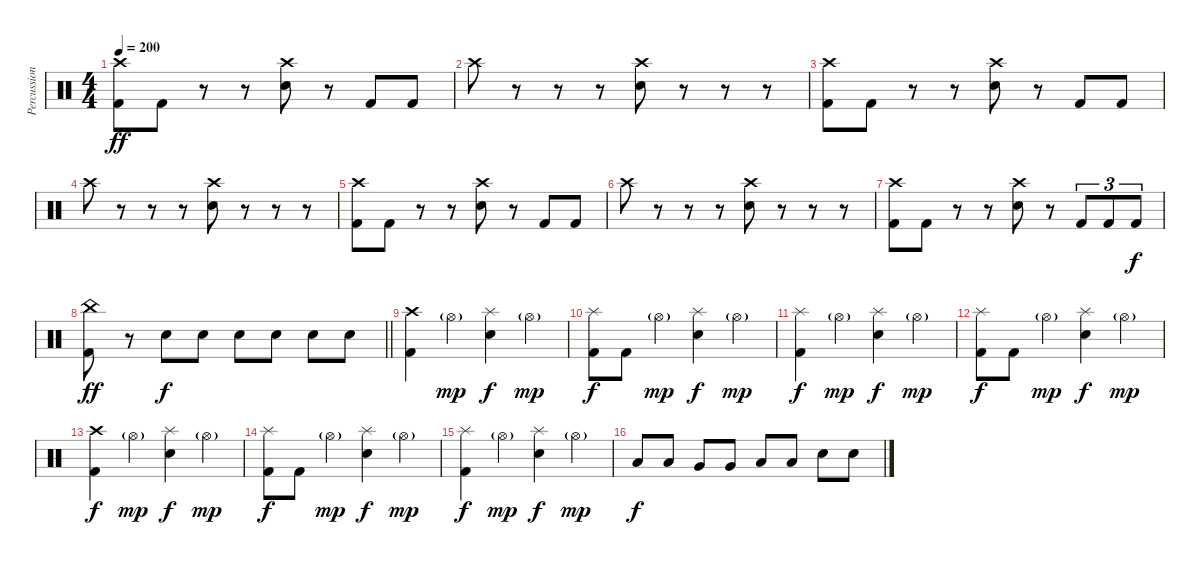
\track ("Percussion" "Percussion") {instrument percussion}
\staff {score}
\articulation defaults
\ts (4 4)
\tempo 200
\clef neutral
\ks c
("Crash high (hit)" "Kick (hit) 2").8{dy ff} "Kick (hit) 2".8 r.8 r.8 ("Crash high (hit)" "Electric Snare (hit)").8 r.8 "Kick (hit) 2".8 "Kick (hit) 2".8 |
"Crash high (hit)".8 r.8 r.8 r.8 ("Crash high (hit)" "Electric Snare (hit)").8 r.8 r.8 r.8 |
("Crash high (hit)" "Kick (hit) 2").8 "Kick (hit) 2".8 r.8 r.8 ("Crash high (hit)" "Electric Snare (hit)").8 r.8 "Kick (hit) 2".8 "Kick (hit) 2".8 |
"Crash high (hit)".8 r.8 r.8 r.8 ("Crash high (hit)" "Electric Snare (hit)").8 r.8 r.8 r.8 |
("Crash high (hit)" "Kick (hit) 2").8 "Kick (hit) 2".8 r.8 r.8 ("Crash high (hit)" "Electric Snare (hit)").8 r.8 "Kick (hit) 2".8 "Kick (hit) 2".8 |
"Crash high (hit)".8 r.8 r.8 r.8 ("Crash high (hit)" "Electric Snare (hit)").8 r.8 r.8 r.8 |
("Crash high (hit)" "Kick (hit) 2").8 "Kick (hit) 2".8 r.8 r.8 ("Crash high (hit)" "Electric Snare (hit)").8 r.8 "Kick (hit) 2".8{tu (3 2)} "Kick (hit) 2".8{tu (3 2)} "Kick (hit) 2".8{tu (3 2) dy f} |
\barLineRight lightlight
("China (hit)" "Kick (hit) 2").8{dy ff} r.8 "Electric Snare (hit)".8{dy f} "Electric Snare (hit)".8 "Electric Snare (hit)".8 "Electric Snare (hit)".8 "Electric Snare (hit)".8 "Electric Snare (hit)".8 |
\section ("" "")
("Crash high (hit)" "Kick (hit) 2").4 "Hi-Hat (open)"{g}.4{dy mp} ("Splash (hit)" "Electric Snare (hit)").4{dy f} "Hi-Hat (open)"{g}.4{dy mp} |
("Splash (hit)" "Kick (hit) 2").8{dy f} "Kick (hit) 2".8 "Hi-Hat (open)"{g}.4{dy mp} ("Splash (hit)" "Electric Snare (hit)").4{dy f} "Hi-Hat (open)"{g}.4{dy mp} |
("Splash (hit)" "Kick (hit) 2").4{dy f} "Hi-Hat (open)"{g}.4{dy mp} ("Splash (hit)" "Electric Snare (hit)").4{dy f} "Hi-Hat (open)"{g}.4{dy mp} |
("Splash (hit)" "Kick (hit) 2").8{dy f} "Kick (hit) 2".8 "Hi-Hat (open)"{g}.4{dy mp} ("Splash (hit)" "Electric Snare (hit)").4{dy f} "Hi-Hat (open)"{g}.4{dy mp} |
("Crash high (hit)" "Kick (hit) 2").4{dy f} "Hi-Hat (open)"{g}.4{dy mp} ("Splash (hit)" "Electric Snare (hit)").4{dy f} "Hi-Hat (open)"{g}.4{dy mp} |
("Splash (hit)" "Kick (hit) 2").8{dy f} "Kick (hit) 2".8 "Hi-Hat (open)"{g}.4{dy mp} ("Splash (hit)" "Electric Snare (hit)").4{dy f} "Hi-Hat (open)"{g}.4{dy mp} |
("Splash (hit)" "Kick (hit) 2").4{dy f} "Hi-Hat (open)"{g}.4{dy mp} ("Splash (hit)" "Electric Snare (hit)").4{dy f} "Hi-Hat (open)"{g}.4{dy mp} |
"Low Tom (hit)".8{dy f} "Low Tom (hit)".8 "Very Low Tom (hit)".8 "Very Low Tom (hit)".8 "Low Floor Tom (hit)".8 "Low Floor Tom (hit)".8 "Electric Snare (hit)".8 "Electric Snare (hit)".8
